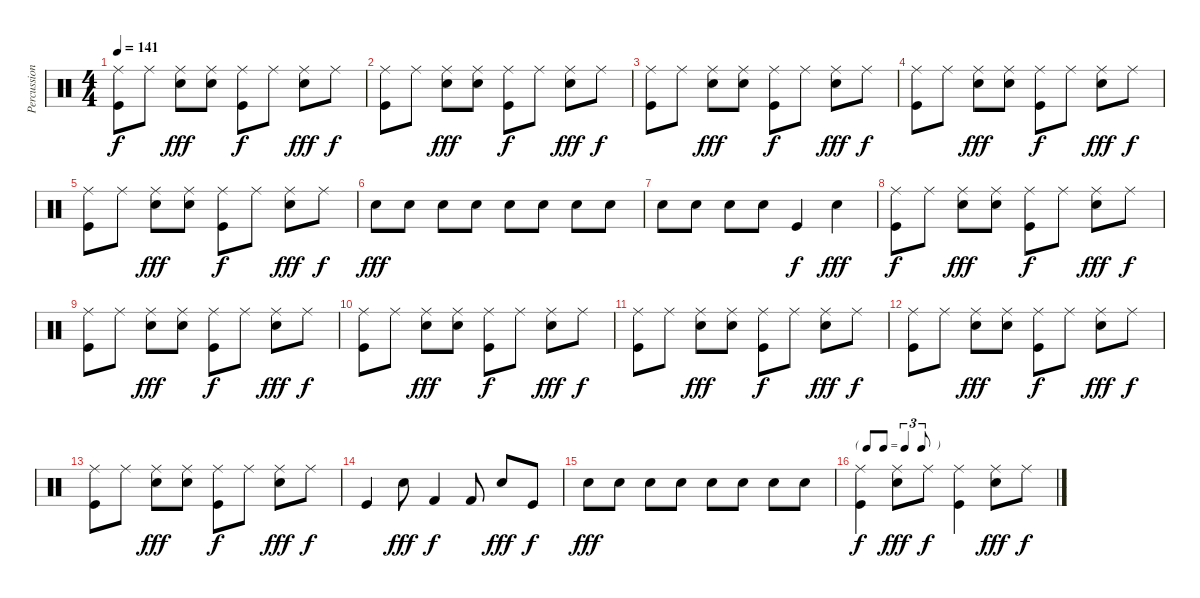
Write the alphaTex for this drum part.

\track ("Percussions 2" "Percussion") {mute instrument percussion}
\staff {score}
\articulation defaults
\ts (4 4)
\tempo 141
\clef neutral
\ks c
("Kick (hit)" "Ride (middle)").8{dy f} "Ride (middle)".8 ("Snare (hit) 2" "Ride (middle)").8{dy fff} ("Snare (hit) 2" "Ride (middle)").8 ("Kick (hit)" "Ride (middle)").8{dy f} "Ride (middle)".8 ("Snare (hit) 2" "Ride (middle)").8{dy fff} "Ride (middle)".8{dy f} |
("Kick (hit)" "Ride (middle)").8 "Ride (middle)".8 ("Snare (hit) 2" "Ride (middle)").8{dy fff} ("Snare (hit) 2" "Ride (middle)").8 ("Kick (hit)" "Ride (middle)").8{dy f} "Ride (middle)".8 ("Snare (hit) 2" "Ride (middle)").8{dy fff} "Ride (middle)".8{dy f} |
("Kick (hit)" "Ride (middle)").8 "Ride (middle)".8 ("Snare (hit) 2" "Ride (middle)").8{dy fff} ("Snare (hit) 2" "Ride (middle)").8 ("Kick (hit)" "Ride (middle)").8{dy f} "Ride (middle)".8 ("Snare (hit) 2" "Ride (middle)").8{dy fff} "Ride (middle)".8{dy f} |
("Kick (hit)" "Ride (middle)").8 "Ride (middle)".8 ("Snare (hit) 2" "Ride (middle)").8{dy fff} ("Snare (hit) 2" "Ride (middle)").8 ("Kick (hit)" "Ride (middle)").8{dy f} "Ride (middle)".8 ("Snare (hit) 2" "Ride (middle)").8{dy fff} "Ride (middle)".8{dy f} |
("Kick (hit)" "Ride (middle)").8 "Ride (middle)".8 ("Snare (hit) 2" "Ride (middle)").8{dy fff} ("Snare (hit) 2" "Ride (middle)").8 ("Kick (hit)" "Ride (middle)").8{dy f} "Ride (middle)".8 ("Snare (hit) 2" "Ride (middle)").8{dy fff} "Ride (middle)".8{dy f} |
"Snare (hit) 2".8{dy fff} "Snare (hit) 2".8 "Snare (hit) 2".8 "Snare (hit) 2".8 "Snare (hit) 2".8 "Snare (hit) 2".8 "Snare (hit) 2".8 "Snare (hit) 2".8 |
"Snare (hit) 2".8 "Snare (hit) 2".8 "Snare (hit) 2".8 "Snare (hit) 2".8 "Kick (hit)".4{dy f} "Snare (hit) 2".4{dy fff} |
("Kick (hit)" "Ride (middle)").8{dy f} "Ride (middle)".8 ("Snare (hit) 2" "Ride (middle)").8{dy fff} ("Snare (hit) 2" "Ride (middle)").8 ("Kick (hit)" "Ride (middle)").8{dy f} "Ride (middle)".8 ("Snare (hit) 2" "Ride (middle)").8{dy fff} "Ride (middle)".8{dy f} |
("Kick (hit)" "Ride (middle)").8 "Ride (middle)".8 ("Snare (hit) 2" "Ride (middle)").8{dy fff} ("Snare (hit) 2" "Ride (middle)").8 ("Kick (hit)" "Ride (middle)").8{dy f} "Ride (middle)".8 ("Snare (hit) 2" "Ride (middle)").8{dy fff} "Ride (middle)".8{dy f} |
("Kick (hit)" "Ride (middle)").8 "Ride (middle)".8 ("Snare (hit) 2" "Ride (middle)").8{dy fff} ("Snare (hit) 2" "Ride (middle)").8 ("Kick (hit)" "Ride (middle)").8{dy f} "Ride (middle)".8 ("Snare (hit) 2" "Ride (middle)").8{dy fff} "Ride (middle)".8{dy f} |
("Kick (hit)" "Ride (middle)").8 "Ride (middle)".8 ("Snare (hit) 2" "Ride (middle)").8{dy fff} ("Snare (hit) 2" "Ride (middle)").8 ("Kick (hit)" "Ride (middle)").8{dy f} "Ride (middle)".8 ("Snare (hit) 2" "Ride (middle)").8{dy fff} "Ride (middle)".8{dy f} |
("Kick (hit)" "Ride (middle)").8 "Ride (middle)".8 ("Snare (hit) 2" "Ride (middle)").8{dy fff} ("Snare (hit) 2" "Ride (middle)").8 ("Kick (hit)" "Ride (middle)").8{dy f} "Ride (middle)".8 ("Snare (hit) 2" "Ride (middle)").8{dy fff} "Ride (middle)".8{dy f} |
("Kick (hit)" "Ride (middle)").8 "Ride (middle)".8 ("Snare (hit) 2" "Ride (middle)").8{dy fff} ("Snare (hit) 2" "Ride (middle)").8 ("Kick (hit)" "Ride (middle)").8{dy f} "Ride (middle)".8 ("Snare (hit) 2" "Ride (middle)").8{dy fff} "Ride (middle)".8{dy f} |
"Kick (hit)".4 "Snare (hit) 2".8{dy fff} "Kick (hit) 2".4{dy f} "Kick (hit) 2".8 "Snare (hit) 2".8{dy fff} "Kick (hit)".8{dy f} |
"Snare (hit) 2".8{dy fff} "Snare (hit) 2".8 "Snare (hit) 2".8 "Snare (hit) 2".8 "Snare (hit) 2".8 "Snare (hit) 2".8 "Snare (hit) 2".8 "Snare (hit) 2".8 |
\tf triplet8th
("Kick (hit)" "Ride (middle)").4{dy f} ("Snare (hit) 2" "Ride (middle)").8{dy fff} "Ride (middle)".8{dy f} ("Kick (hit)" "Ride (middle)").4 ("Snare (hit) 2" "Ride (middle)").8{dy fff} "Ride (middle)".8{dy f}
